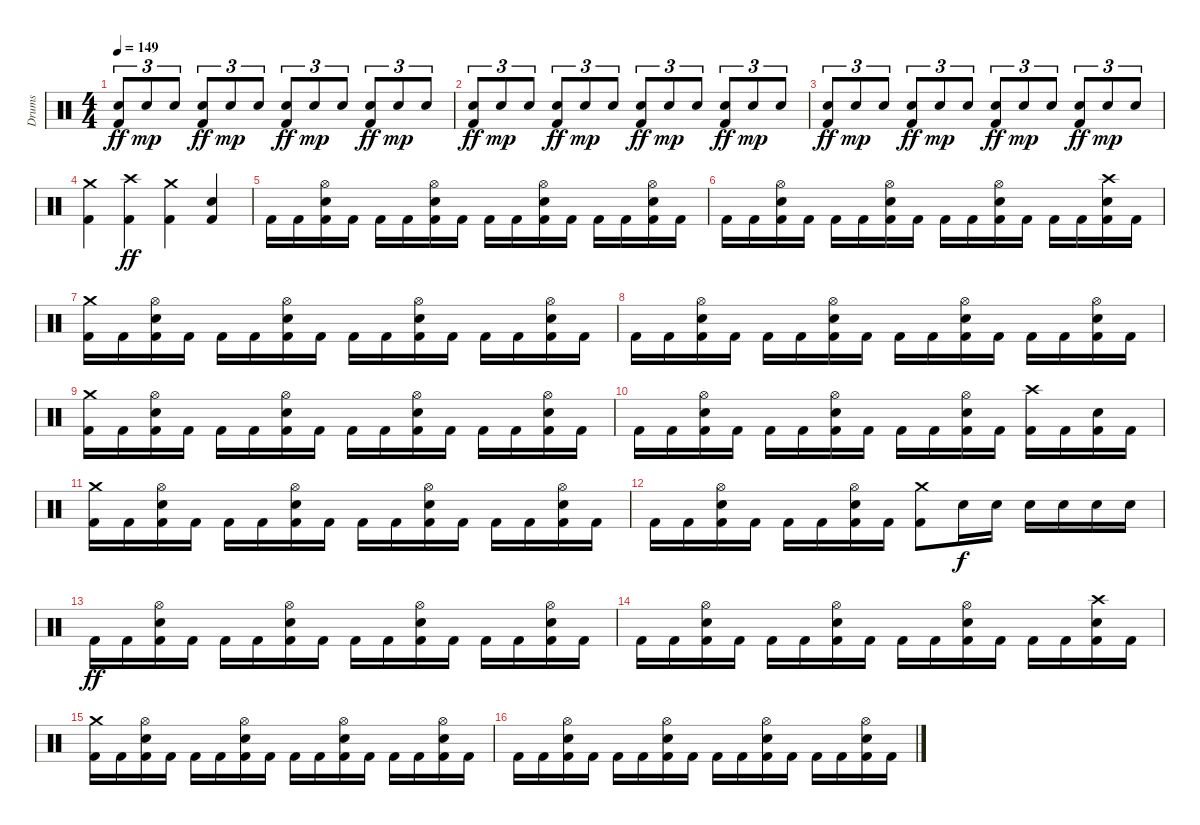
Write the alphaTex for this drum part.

\track ("Drums" "Drums") {instrument percussion}
\staff {score}
\articulation defaults
\ts (4 4)
\tempo 149
\clef neutral
\ks c
("Snare (hit) 2" "Kick (hit) 2").8{tu (3 2) dy ff} "Snare (hit) 2".8{tu (3 2) dy mp} "Snare (hit) 2".8{tu (3 2)} ("Snare (hit) 2" "Kick (hit) 2").8{tu (3 2) dy ff} "Snare (hit) 2".8{tu (3 2) dy mp} "Snare (hit) 2".8{tu (3 2)} ("Snare (hit) 2" "Kick (hit) 2").8{tu (3 2) dy ff} "Snare (hit) 2".8{tu (3 2) dy mp} "Snare (hit) 2".8{tu (3 2)} ("Snare (hit) 2" "Kick (hit) 2").8{tu (3 2) dy ff} "Snare (hit) 2".8{tu (3 2) dy mp} "Snare (hit) 2".8{tu (3 2)} |
("Snare (hit) 2" "Kick (hit) 2").8{tu (3 2) dy ff} "Snare (hit) 2".8{tu (3 2) dy mp} "Snare (hit) 2".8{tu (3 2)} ("Snare (hit) 2" "Kick (hit) 2").8{tu (3 2) dy ff} "Snare (hit) 2".8{tu (3 2) dy mp} "Snare (hit) 2".8{tu (3 2)} ("Snare (hit) 2" "Kick (hit) 2").8{tu (3 2) dy ff} "Snare (hit) 2".8{tu (3 2) dy mp} "Snare (hit) 2".8{tu (3 2)} ("Snare (hit) 2" "Kick (hit) 2").8{tu (3 2) dy ff} "Snare (hit) 2".8{tu (3 2) dy mp} "Snare (hit) 2".8{tu (3 2)} |
("Snare (hit) 2" "Kick (hit) 2").8{tu (3 2) dy ff} "Snare (hit) 2".8{tu (3 2) dy mp} "Snare (hit) 2".8{tu (3 2)} ("Snare (hit) 2" "Kick (hit) 2").8{tu (3 2) dy ff} "Snare (hit) 2".8{tu (3 2) dy mp} "Snare (hit) 2".8{tu (3 2)} ("Snare (hit) 2" "Kick (hit) 2").8{tu (3 2) dy ff} "Snare (hit) 2".8{tu (3 2) dy mp} "Snare (hit) 2".8{tu (3 2)} ("Snare (hit) 2" "Kick (hit) 2").8{tu (3 2) dy ff} "Snare (hit) 2".8{tu (3 2) dy mp} "Snare (hit) 2".8{tu (3 2)} |
("Kick (hit) 2" "Crash medium (hit)").4 ("Kick (hit) 2" "Crash high (hit)").4{dy ff} ("Kick (hit) 2" "Crash medium (hit)").4 ("Snare (hit) 2" "Kick (hit) 2").4 |
"Kick (hit) 2".16 "Kick (hit) 2".16 ("Snare (hit) 2" "Kick (hit) 2" "Hi-Hat (open)").16 "Kick (hit) 2".16 "Kick (hit) 2".16 "Kick (hit) 2".16 ("Snare (hit) 2" "Kick (hit) 2" "Hi-Hat (open)").16 "Kick (hit) 2".16 "Kick (hit) 2".16 "Kick (hit) 2".16 ("Snare (hit) 2" "Kick (hit) 2" "Hi-Hat (open)").16 "Kick (hit) 2".16 "Kick (hit) 2".16 "Kick (hit) 2".16 ("Snare (hit) 2" "Kick (hit) 2" "Hi-Hat (open)").16 "Kick (hit) 2".16 |
"Kick (hit) 2".16 "Kick (hit) 2".16 ("Snare (hit) 2" "Kick (hit) 2" "Hi-Hat (open)").16 "Kick (hit) 2".16 "Kick (hit) 2".16 "Kick (hit) 2".16 ("Snare (hit) 2" "Kick (hit) 2" "Hi-Hat (open)").16 "Kick (hit) 2".16 "Kick (hit) 2".16 "Kick (hit) 2".16 ("Snare (hit) 2" "Kick (hit) 2" "Hi-Hat (open)").16 "Kick (hit) 2".16 "Kick (hit) 2".16 "Kick (hit) 2".16 ("Crash high (hit)" "Snare (hit) 2" "Kick (hit) 2").16 "Kick (hit) 2".16 |
("Crash medium (hit)" "Kick (hit) 2").16 "Kick (hit) 2".16 ("Snare (hit) 2" "Kick (hit) 2" "Hi-Hat (open)").16 "Kick (hit) 2".16 "Kick (hit) 2".16 "Kick (hit) 2".16 ("Snare (hit) 2" "Kick (hit) 2" "Hi-Hat (open)").16 "Kick (hit) 2".16 "Kick (hit) 2".16 "Kick (hit) 2".16 ("Snare (hit) 2" "Kick (hit) 2" "Hi-Hat (open)").16 "Kick (hit) 2".16 "Kick (hit) 2".16 "Kick (hit) 2".16 ("Snare (hit) 2" "Kick (hit) 2" "Hi-Hat (open)").16 "Kick (hit) 2".16 |
"Kick (hit) 2".16 "Kick (hit) 2".16 ("Snare (hit) 2" "Kick (hit) 2" "Hi-Hat (open)").16 "Kick (hit) 2".16 "Kick (hit) 2".16 "Kick (hit) 2".16 ("Snare (hit) 2" "Kick (hit) 2" "Hi-Hat (open)").16 "Kick (hit) 2".16 "Kick (hit) 2".16 "Kick (hit) 2".16 ("Snare (hit) 2" "Kick (hit) 2" "Hi-Hat (open)").16 "Kick (hit) 2".16 "Kick (hit) 2".16 "Kick (hit) 2".16 ("Snare (hit) 2" "Kick (hit) 2" "Hi-Hat (open)").16 "Kick (hit) 2".16 |
("Crash medium (hit)" "Kick (hit) 2").16 "Kick (hit) 2".16 ("Snare (hit) 2" "Kick (hit) 2" "Hi-Hat (open)").16 "Kick (hit) 2".16 "Kick (hit) 2".16 "Kick (hit) 2".16 ("Snare (hit) 2" "Kick (hit) 2" "Hi-Hat (open)").16 "Kick (hit) 2".16 "Kick (hit) 2".16 "Kick (hit) 2".16 ("Snare (hit) 2" "Kick (hit) 2" "Hi-Hat (open)").16 "Kick (hit) 2".16 "Kick (hit) 2".16 "Kick (hit) 2".16 ("Snare (hit) 2" "Kick (hit) 2" "Hi-Hat (open)").16 "Kick (hit) 2".16 |
"Kick (hit) 2".16 "Kick (hit) 2".16 ("Snare (hit) 2" "Kick (hit) 2" "Hi-Hat (open)").16 "Kick (hit) 2".16 "Kick (hit) 2".16 "Kick (hit) 2".16 ("Snare (hit) 2" "Kick (hit) 2" "Hi-Hat (open)").16 "Kick (hit) 2".16 "Kick (hit) 2".16 "Kick (hit) 2".16 ("Snare (hit) 2" "Kick (hit) 2" "Hi-Hat (open)").16 "Kick (hit) 2".16 ("Crash high (hit)" "Kick (hit) 2").16 "Kick (hit) 2".16 ("Snare (hit) 2" "Kick (hit) 2").16 "Kick (hit) 2".16 |
("Crash medium (hit)" "Kick (hit) 2").16 "Kick (hit) 2".16 ("Snare (hit) 2" "Kick (hit) 2" "Hi-Hat (open)").16 "Kick (hit) 2".16 "Kick (hit) 2".16 "Kick (hit) 2".16 ("Snare (hit) 2" "Kick (hit) 2" "Hi-Hat (open)").16 "Kick (hit) 2".16 "Kick (hit) 2".16 "Kick (hit) 2".16 ("Snare (hit) 2" "Kick (hit) 2" "Hi-Hat (open)").16 "Kick (hit) 2".16 "Kick (hit) 2".16 "Kick (hit) 2".16 ("Snare (hit) 2" "Kick (hit) 2" "Hi-Hat (open)").16 "Kick (hit) 2".16 |
"Kick (hit) 2".16 "Kick (hit) 2".16 ("Snare (hit) 2" "Kick (hit) 2" "Hi-Hat (open)").16 "Kick (hit) 2".16 "Kick (hit) 2".16 "Kick (hit) 2".16 ("Snare (hit) 2" "Kick (hit) 2" "Hi-Hat (open)").16 "Kick (hit) 2".16 ("Crash medium (hit)" "Kick (hit) 2").8 "Snare (hit) 2".16{dy f} "Snare (hit) 2".16 "Snare (hit) 2".16 "Snare (hit) 2".16 "Snare (hit) 2".16 "Snare (hit) 2".16 |
"Kick (hit) 2".16{dy ff} "Kick (hit) 2".16 ("Snare (hit) 2" "Kick (hit) 2" "Hi-Hat (open)").16 "Kick (hit) 2".16 "Kick (hit) 2".16 "Kick (hit) 2".16 ("Snare (hit) 2" "Kick (hit) 2" "Hi-Hat (open)").16 "Kick (hit) 2".16 "Kick (hit) 2".16 "Kick (hit) 2".16 ("Snare (hit) 2" "Kick (hit) 2" "Hi-Hat (open)").16 "Kick (hit) 2".16 "Kick (hit) 2".16 "Kick (hit) 2".16 ("Snare (hit) 2" "Kick (hit) 2" "Hi-Hat (open)").16 "Kick (hit) 2".16 |
"Kick (hit) 2".16 "Kick (hit) 2".16 ("Snare (hit) 2" "Kick (hit) 2" "Hi-Hat (open)").16 "Kick (hit) 2".16 "Kick (hit) 2".16 "Kick (hit) 2".16 ("Snare (hit) 2" "Kick (hit) 2" "Hi-Hat (open)").16 "Kick (hit) 2".16 "Kick (hit) 2".16 "Kick (hit) 2".16 ("Snare (hit) 2" "Kick (hit) 2" "Hi-Hat (open)").16 "Kick (hit) 2".16 "Kick (hit) 2".16 "Kick (hit) 2".16 ("Crash high (hit)" "Snare (hit) 2" "Kick (hit) 2").16 "Kick (hit) 2".16 |
("Crash medium (hit)" "Kick (hit) 2").16 "Kick (hit) 2".16 ("Snare (hit) 2" "Kick (hit) 2" "Hi-Hat (open)").16 "Kick (hit) 2".16 "Kick (hit) 2".16 "Kick (hit) 2".16 ("Snare (hit) 2" "Kick (hit) 2" "Hi-Hat (open)").16 "Kick (hit) 2".16 "Kick (hit) 2".16 "Kick (hit) 2".16 ("Snare (hit) 2" "Kick (hit) 2" "Hi-Hat (open)").16 "Kick (hit) 2".16 "Kick (hit) 2".16 "Kick (hit) 2".16 ("Snare (hit) 2" "Kick (hit) 2" "Hi-Hat (open)").16 "Kick (hit) 2".16 |
"Kick (hit) 2".16 "Kick (hit) 2".16 ("Snare (hit) 2" "Kick (hit) 2" "Hi-Hat (open)").16 "Kick (hit) 2".16 "Kick (hit) 2".16 "Kick (hit) 2".16 ("Snare (hit) 2" "Kick (hit) 2" "Hi-Hat (open)").16 "Kick (hit) 2".16 "Kick (hit) 2".16 "Kick (hit) 2".16 ("Snare (hit) 2" "Kick (hit) 2" "Hi-Hat (open)").16 "Kick (hit) 2".16 "Kick (hit) 2".16 "Kick (hit) 2".16 ("Snare (hit) 2" "Kick (hit) 2" "Hi-Hat (open)").16 "Kick (hit) 2".16
